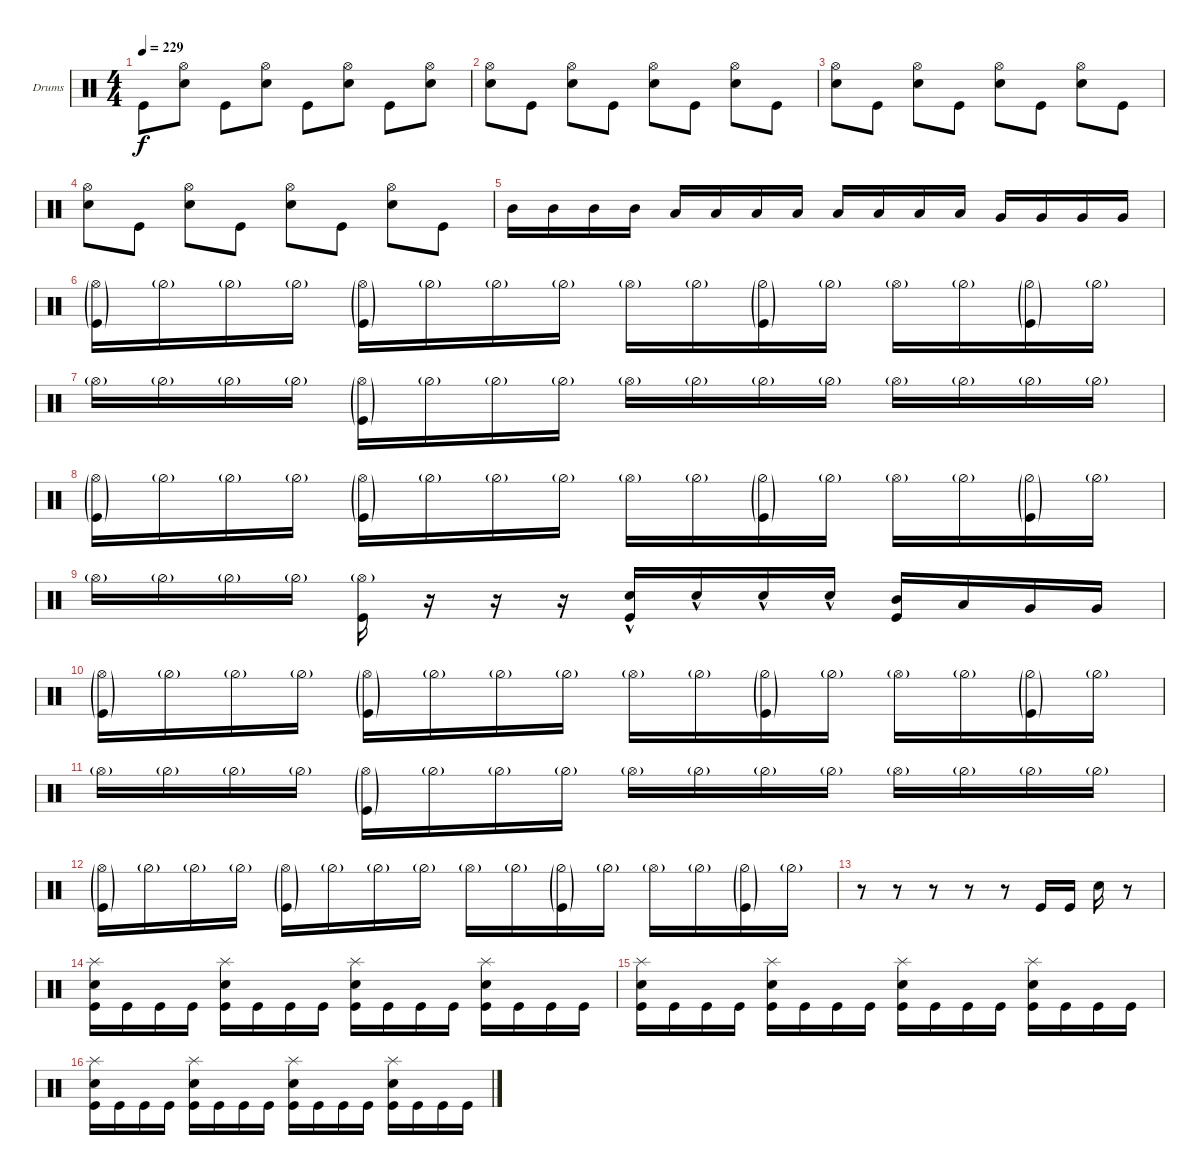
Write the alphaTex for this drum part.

\defaultSystemsLayout 4
\bracketExtendMode groupsimilarinstruments
\firstSystemTrackNameOrientation horizontal
\otherSystemsTrackNameOrientation horizontal
\track ("Drumkit" "Drums") {instrument percussion}
\staff {score}
\articulation defaults
\ts (4 4)
\tempo 229
\clef neutral
\ks c "Kick (hit)".8{dy f}
("Snare (hit) 2" "Hi-Hat (open)").8 "Kick (hit)".8 ("Snare (hit) 2" "Hi-Hat (open)").8 "Kick (hit)".8 ("Snare (hit) 2" "Hi-Hat (open)").8 "Kick (hit)".8 ("Snare (hit) 2" "Hi-Hat (open)").8 |
("Snare (hit) 2" "Hi-Hat (open)").8 "Kick (hit)".8 ("Snare (hit) 2" "Hi-Hat (open)").8 "Kick (hit)".8 ("Snare (hit) 2" "Hi-Hat (open)").8 "Kick (hit)".8 ("Snare (hit) 2" "Hi-Hat (open)").8 "Kick (hit)".8 |
("Snare (hit) 2" "Hi-Hat (open)").8 "Kick (hit)".8 ("Snare (hit) 2" "Hi-Hat (open)").8 "Kick (hit)".8 ("Snare (hit) 2" "Hi-Hat (open)").8 "Kick (hit)".8 ("Snare (hit) 2" "Hi-Hat (open)").8 "Kick (hit)".8 |
("Snare (hit) 2" "Hi-Hat (open)").8 "Kick (hit)".8 ("Snare (hit) 2" "Hi-Hat (open)").8 "Kick (hit)".8 ("Snare (hit) 2" "Hi-Hat (open)").8 "Kick (hit)".8 ("Snare (hit) 2" "Hi-Hat (open)").8 "Kick (hit)".8 |
"Mid Tom (hit)".16 "Mid Tom (hit)".16 "Mid Tom (hit)".16 "Mid Tom (hit)".16 "Low Tom (hit)".16 "Low Tom (hit)".16 "Low Tom (hit)".16 "Low Tom (hit)".16 "Low Tom (hit)".16 "Low Tom (hit)".16 "Low Tom (hit)".16 "Low Tom (hit)".16 "Very Low Tom (hit)".16 "Very Low Tom (hit)".16 "Very Low Tom (hit)".16 "Very Low Tom (hit)".16 |
("Kick (hit)"{g} "Hi-Hat (open)"{g}).16 "Hi-Hat (half)"{g}.16 "Hi-Hat (half)"{g}.16 "Hi-Hat (half)"{g}.16 ("Hi-Hat (open)"{g} "Kick (hit)"{g}).16 "Hi-Hat (half)"{g}.16 "Hi-Hat (half)"{g}.16 "Hi-Hat (half)"{g}.16 "Hi-Hat (open)"{g}.16 "Hi-Hat (half)"{g}.16 ("Kick (hit)"{g} "Hi-Hat (half)"{g}).16 "Hi-Hat (half)"{g}.16 "Hi-Hat (open)"{g}.16 "Hi-Hat (half)"{g}.16 ("Kick (hit)"{g} "Hi-Hat (half)"{g}).16 "Hi-Hat (half)"{g}.16 |
"Hi-Hat (open)"{g}.16 "Hi-Hat (half)"{g}.16 "Hi-Hat (half)"{g}.16 "Hi-Hat (half)"{g}.16 ("Hi-Hat (open)"{g} "Kick (hit)"{g}).16 "Hi-Hat (half)"{g}.16 "Hi-Hat (half)"{g}.16 "Hi-Hat (half)"{g}.16 "Hi-Hat (open)"{g}.16 "Hi-Hat (half)"{g}.16 "Hi-Hat (half)"{g}.16 "Hi-Hat (half)"{g}.16 "Hi-Hat (open)"{g}.16 "Hi-Hat (half)"{g}.16 "Hi-Hat (half)"{g}.16 "Hi-Hat (half)"{g}.16 |
("Kick (hit)"{g} "Hi-Hat (open)"{g}).16 "Hi-Hat (half)"{g}.16 "Hi-Hat (half)"{g}.16 "Hi-Hat (half)"{g}.16 ("Hi-Hat (open)"{g} "Kick (hit)"{g}).16 "Hi-Hat (half)"{g}.16 "Hi-Hat (half)"{g}.16 "Hi-Hat (half)"{g}.16 "Hi-Hat (open)"{g}.16 "Hi-Hat (half)"{g}.16 ("Kick (hit)"{g} "Hi-Hat (half)"{g}).16 "Hi-Hat (half)"{g}.16 "Hi-Hat (open)"{g}.16 "Hi-Hat (half)"{g}.16 ("Kick (hit)"{g} "Hi-Hat (half)"{g}).16 "Hi-Hat (half)"{g}.16 |
"Hi-Hat (open)"{g}.16 "Hi-Hat (half)"{g}.16 "Hi-Hat (half)"{g}.16 "Hi-Hat (half)"{g}.16 ("Hi-Hat (open)"{g} "Kick (hit)").16 r.16 r.16 r.16 ("Snare (hit) 2"{hac} "Kick (hit)").16 "Snare (hit) 2"{hac}.16 "Snare (hit) 2"{hac}.16 "Snare (hit) 2"{hac}.16 ("Kick (hit)" "Mid Tom (hit)").16 "Low Tom (hit)".16 "Very Low Tom (hit)".16 "Very Low Tom (hit)".16 |
("Kick (hit)"{g} "Hi-Hat (open)"{g}).16 "Hi-Hat (half)"{g}.16 "Hi-Hat (half)"{g}.16 "Hi-Hat (half)"{g}.16 ("Hi-Hat (open)"{g} "Kick (hit)"{g}).16 "Hi-Hat (half)"{g}.16 "Hi-Hat (half)"{g}.16 "Hi-Hat (half)"{g}.16 "Hi-Hat (open)"{g}.16 "Hi-Hat (half)"{g}.16 ("Kick (hit)"{g} "Hi-Hat (half)"{g}).16 "Hi-Hat (half)"{g}.16 "Hi-Hat (open)"{g}.16 "Hi-Hat (half)"{g}.16 ("Kick (hit)"{g} "Hi-Hat (half)"{g}).16 "Hi-Hat (half)"{g}.16 |
"Hi-Hat (open)"{g}.16 "Hi-Hat (half)"{g}.16 "Hi-Hat (half)"{g}.16 "Hi-Hat (half)"{g}.16 ("Hi-Hat (open)"{g} "Kick (hit)"{g}).16 "Hi-Hat (half)"{g}.16 "Hi-Hat (half)"{g}.16 "Hi-Hat (half)"{g}.16 "Hi-Hat (open)"{g}.16 "Hi-Hat (half)"{g}.16 "Hi-Hat (half)"{g}.16 "Hi-Hat (half)"{g}.16 "Hi-Hat (open)"{g}.16 "Hi-Hat (half)"{g}.16 "Hi-Hat (half)"{g}.16 "Hi-Hat (half)"{g}.16 |
("Kick (hit)"{g} "Hi-Hat (open)"{g}).16 "Hi-Hat (half)"{g}.16 "Hi-Hat (half)"{g}.16 "Hi-Hat (half)"{g}.16 ("Hi-Hat (open)"{g} "Kick (hit)"{g}).16 "Hi-Hat (half)"{g}.16 "Hi-Hat (half)"{g}.16 "Hi-Hat (half)"{g}.16 "Hi-Hat (open)"{g}.16 "Hi-Hat (half)"{g}.16 ("Kick (hit)"{g} "Hi-Hat (half)"{g}).16 "Hi-Hat (half)"{g}.16 "Hi-Hat (open)"{g}.16 "Hi-Hat (half)"{g}.16 ("Kick (hit)"{g} "Hi-Hat (half)"{g}).16 "Hi-Hat (half)"{g}.16 |
r.8 r.8 r.8 r.8 r.8 "Kick (hit)".16 "Kick (hit)".16 "Snare (hit) 2".16 r.8 |
("Snare (hit) 2" "Kick (hit)" "Splash (hit)").16 "Kick (hit)".16 "Kick (hit)".16 "Kick (hit)".16 ("Snare (hit) 2" "Kick (hit)" "Splash (hit)").16 "Kick (hit)".16 "Kick (hit)".16 "Kick (hit)".16 ("Snare (hit) 2" "Kick (hit)" "Splash (hit)").16 "Kick (hit)".16 "Kick (hit)".16 "Kick (hit)".16 ("Snare (hit) 2" "Kick (hit)" "Splash (hit)").16 "Kick (hit)".16 "Kick (hit)".16 "Kick (hit)".16 |
("Snare (hit) 2" "Kick (hit)" "Splash (hit)").16 "Kick (hit)".16 "Kick (hit)".16 "Kick (hit)".16 ("Snare (hit) 2" "Kick (hit)" "Splash (hit)").16 "Kick (hit)".16 "Kick (hit)".16 "Kick (hit)".16 ("Snare (hit) 2" "Kick (hit)" "Splash (hit)").16 "Kick (hit)".16 "Kick (hit)".16 "Kick (hit)".16 ("Snare (hit) 2" "Kick (hit)" "Splash (hit)").16 "Kick (hit)".16 "Kick (hit)".16 "Kick (hit)".16 |
("Snare (hit) 2" "Kick (hit)" "Splash (hit)").16 "Kick (hit)".16 "Kick (hit)".16 "Kick (hit)".16 ("Snare (hit) 2" "Kick (hit)" "Splash (hit)").16 "Kick (hit)".16 "Kick (hit)".16 "Kick (hit)".16 ("Snare (hit) 2" "Kick (hit)" "Splash (hit)").16 "Kick (hit)".16 "Kick (hit)".16 "Kick (hit)".16 ("Snare (hit) 2" "Kick (hit)" "Splash (hit)").16 "Kick (hit)".16 "Kick (hit)".16 "Kick (hit)".16
